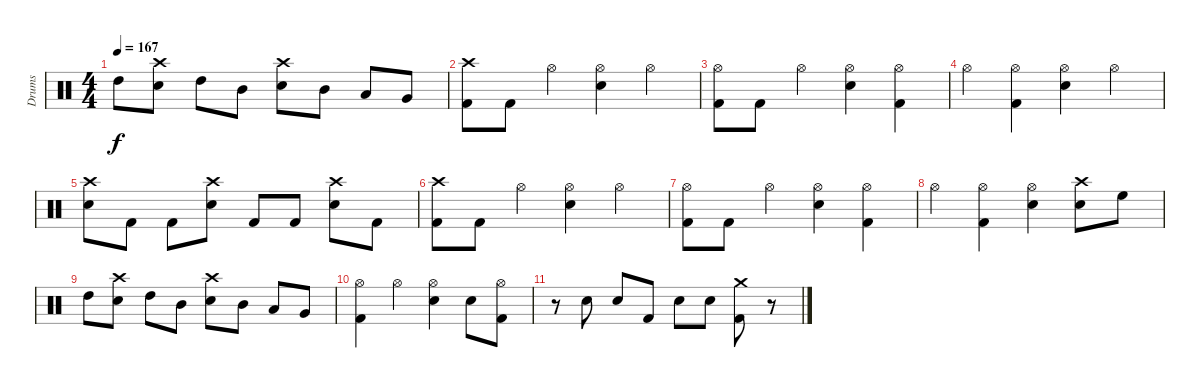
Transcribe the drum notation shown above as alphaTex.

\track ("Drums" "Drums") {instrument percussion}
\staff {score}
\articulation defaults
\ts (4 4)
\tempo 167
\clef neutral
\ks c "High Tom (hit)".8{dy f}
("Crash high (hit)" "Snare (hit) 2").8 "High Tom (hit)".8 "Mid Tom (hit)".8 ("Crash high (hit)" "Snare (hit) 2").8 "Mid Tom (hit)".8 "Low Tom (hit)".8 "Very Low Tom (hit)".8 |
("Crash high (hit)" "Kick (hit) 2").8 "Kick (hit) 2".8 "Hi-Hat (open)".4 ("Hi-Hat (open)" "Snare (hit) 2").4 "Hi-Hat (open)".4 |
("Hi-Hat (open)" "Kick (hit) 2").8 "Kick (hit) 2".8 "Hi-Hat (open)".4 ("Hi-Hat (open)" "Snare (hit) 2").4 ("Hi-Hat (open)" "Kick (hit) 2").4 |
"Hi-Hat (open)".4 ("Hi-Hat (open)" "Kick (hit) 2").4 ("Hi-Hat (open)" "Snare (hit) 2").4 "Hi-Hat (open)".4 |
("Crash high (hit)" "Snare (hit) 2").8 "Kick (hit) 2".8 "Kick (hit) 2".8 ("Crash high (hit)" "Snare (hit) 2").8 "Kick (hit) 2".8 "Kick (hit) 2".8 ("Crash high (hit)" "Snare (hit) 2").8 "Kick (hit) 2".8 |
("Crash high (hit)" "Kick (hit) 2").8 "Kick (hit) 2".8 "Hi-Hat (open)".4 ("Hi-Hat (open)" "Snare (hit) 2").4 "Hi-Hat (open)".4 |
("Hi-Hat (open)" "Kick (hit) 2").8 "Kick (hit) 2".8 "Hi-Hat (open)".4 ("Hi-Hat (open)" "Snare (hit) 2").4 ("Hi-Hat (open)" "Kick (hit) 2").4 |
"Hi-Hat (open)".4 ("Hi-Hat (open)" "Kick (hit) 2").4 ("Hi-Hat (open)" "Snare (hit) 2").4 ("Crash high (hit)" "Snare (hit) 2").8 "High Floor Tom (hit)".8 |
"High Tom (hit)".8 ("Crash high (hit)" "Snare (hit) 2").8 "High Tom (hit)".8 "Mid Tom (hit)".8 ("Crash high (hit)" "Snare (hit) 2").8 "Mid Tom (hit)".8 "Low Tom (hit)".8 "Very Low Tom (hit)".8 |
("Hi-Hat (open)" "Kick (hit) 2").4 "Hi-Hat (open)".4 ("Hi-Hat (open)" "Snare (hit) 2").4 "Snare (hit) 2".8 ("Hi-Hat (open)" "Kick (hit) 2").8 |
r.8 "Snare (hit) 2".8 "Snare (hit) 2".8 "Kick (hit) 2".8 "Snare (hit) 2".8 "Snare (hit) 2".8 ("Crash medium (hit)" "Kick (hit) 2").8 r.8
